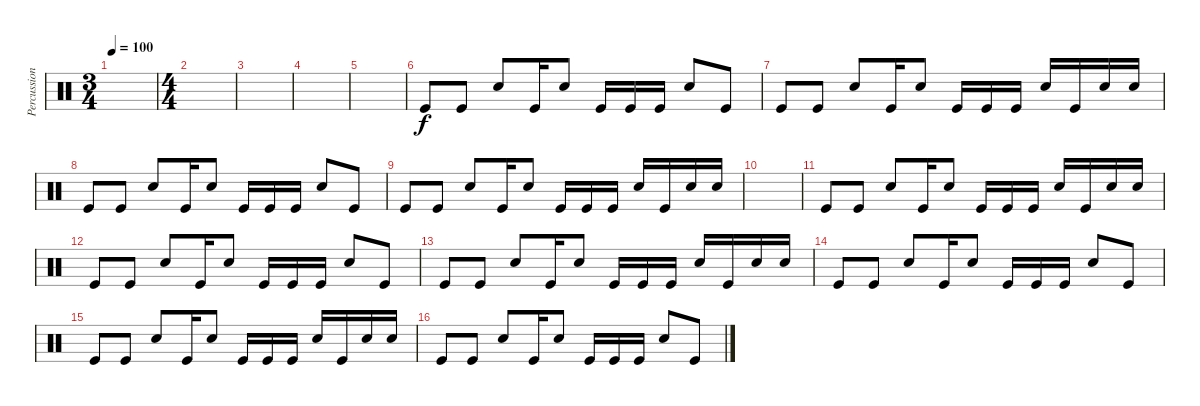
\track ("Percussions" "Percussion") {instrument percussion}
\staff {score}
\articulation defaults
\ts (3 4)
\tempo 100
\clef neutral
\ks c
|
\ts (4 4)
|
|
|
|
"Kick (hit)".8 "Kick (hit)".8 "Electric Snare (hit)".8 "Kick (hit)".16 "Electric Snare (hit)".8 "Kick (hit)".16 "Kick (hit)".16 "Kick (hit)".16 "Electric Snare (hit)".8 "Kick (hit)".8 |
"Kick (hit)".8 "Kick (hit)".8 "Electric Snare (hit)".8 "Kick (hit)".16 "Electric Snare (hit)".8 "Kick (hit)".16 "Kick (hit)".16 "Kick (hit)".16 "Electric Snare (hit)".16 "Kick (hit)".16 "Electric Snare (hit)".16 "Electric Snare (hit)".16 |
"Kick (hit)".8 "Kick (hit)".8 "Electric Snare (hit)".8 "Kick (hit)".16 "Electric Snare (hit)".8 "Kick (hit)".16 "Kick (hit)".16 "Kick (hit)".16 "Electric Snare (hit)".8 "Kick (hit)".8 |
"Kick (hit)".8 "Kick (hit)".8 "Electric Snare (hit)".8 "Kick (hit)".16 "Electric Snare (hit)".8 "Kick (hit)".16 "Kick (hit)".16 "Kick (hit)".16 "Electric Snare (hit)".16 "Kick (hit)".16 "Electric Snare (hit)".16 "Electric Snare (hit)".16 |
|
"Kick (hit)".8 "Kick (hit)".8 "Electric Snare (hit)".8 "Kick (hit)".16 "Electric Snare (hit)".8 "Kick (hit)".16 "Kick (hit)".16 "Kick (hit)".16 "Electric Snare (hit)".16 "Kick (hit)".16 "Electric Snare (hit)".16 "Electric Snare (hit)".16 |
"Kick (hit)".8 "Kick (hit)".8 "Electric Snare (hit)".8 "Kick (hit)".16 "Electric Snare (hit)".8 "Kick (hit)".16 "Kick (hit)".16 "Kick (hit)".16 "Electric Snare (hit)".8 "Kick (hit)".8 |
"Kick (hit)".8 "Kick (hit)".8 "Electric Snare (hit)".8 "Kick (hit)".16 "Electric Snare (hit)".8 "Kick (hit)".16 "Kick (hit)".16 "Kick (hit)".16 "Electric Snare (hit)".16 "Kick (hit)".16 "Electric Snare (hit)".16 "Electric Snare (hit)".16 |
"Kick (hit)".8 "Kick (hit)".8 "Electric Snare (hit)".8 "Kick (hit)".16 "Electric Snare (hit)".8 "Kick (hit)".16 "Kick (hit)".16 "Kick (hit)".16 "Electric Snare (hit)".8 "Kick (hit)".8 |
"Kick (hit)".8 "Kick (hit)".8 "Electric Snare (hit)".8 "Kick (hit)".16 "Electric Snare (hit)".8 "Kick (hit)".16 "Kick (hit)".16 "Kick (hit)".16 "Electric Snare (hit)".16 "Kick (hit)".16 "Electric Snare (hit)".16 "Electric Snare (hit)".16 |
"Kick (hit)".8 "Kick (hit)".8 "Electric Snare (hit)".8 "Kick (hit)".16 "Electric Snare (hit)".8 "Kick (hit)".16 "Kick (hit)".16 "Kick (hit)".16 "Electric Snare (hit)".8 "Kick (hit)".8
